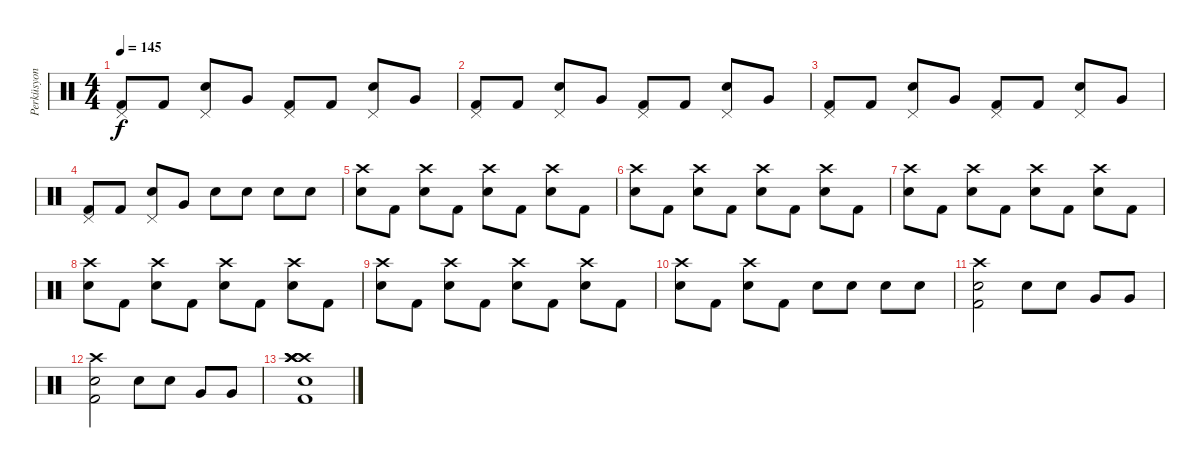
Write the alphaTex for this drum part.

\track ("Perküsyon" "Perküsyon") {instrument percussion}
\staff {score}
\articulation defaults
\ts (4 4)
\tempo 145
\clef neutral
\ks c
("Pedal Hi-Hat (hit)" "Kick (hit) 2").8{dy f} "Kick (hit) 2".8 ("Pedal Hi-Hat (hit)" "Snare (hit) 2").8 "Very Low Tom (hit)".8 ("Pedal Hi-Hat (hit)" "Kick (hit) 2").8 "Kick (hit) 2".8 ("Pedal Hi-Hat (hit)" "Snare (hit) 2").8 "Very Low Tom (hit)".8 |
("Pedal Hi-Hat (hit)" "Kick (hit) 2").8 "Kick (hit) 2".8 ("Pedal Hi-Hat (hit)" "Snare (hit) 2").8 "Very Low Tom (hit)".8 ("Pedal Hi-Hat (hit)" "Kick (hit) 2").8 "Kick (hit) 2".8 ("Pedal Hi-Hat (hit)" "Snare (hit) 2").8 "Very Low Tom (hit)".8 |
("Pedal Hi-Hat (hit)" "Kick (hit) 2").8 "Kick (hit) 2".8 ("Pedal Hi-Hat (hit)" "Snare (hit) 2").8 "Very Low Tom (hit)".8 ("Pedal Hi-Hat (hit)" "Kick (hit) 2").8 "Kick (hit) 2".8 ("Pedal Hi-Hat (hit)" "Snare (hit) 2").8 "Very Low Tom (hit)".8 |
("Pedal Hi-Hat (hit)" "Kick (hit) 2").8 "Kick (hit) 2".8 ("Pedal Hi-Hat (hit)" "Snare (hit) 2").8 "Very Low Tom (hit)".8 "Snare (hit) 2".8 "Snare (hit) 2".8 "Snare (hit) 2".8 "Snare (hit) 2".8 |
("Snare (hit) 2" "Crash high (hit)").8 "Kick (hit) 2".8 ("Snare (hit) 2" "Crash high (hit)").8 "Kick (hit) 2".8 ("Snare (hit) 2" "Crash high (hit)").8 "Kick (hit) 2".8 ("Snare (hit) 2" "Crash high (hit)").8 "Kick (hit) 2".8 |
("Snare (hit) 2" "Crash high (hit)").8 "Kick (hit) 2".8 ("Snare (hit) 2" "Crash high (hit)").8 "Kick (hit) 2".8 ("Snare (hit) 2" "Crash high (hit)").8 "Kick (hit) 2".8 ("Snare (hit) 2" "Crash high (hit)").8 "Kick (hit) 2".8 |
("Snare (hit) 2" "Crash high (hit)").8 "Kick (hit) 2".8 ("Snare (hit) 2" "Crash high (hit)").8 "Kick (hit) 2".8 ("Snare (hit) 2" "Crash high (hit)").8 "Kick (hit) 2".8 ("Snare (hit) 2" "Crash high (hit)").8 "Kick (hit) 2".8 |
("Snare (hit) 2" "Crash high (hit)").8 "Kick (hit) 2".8 ("Snare (hit) 2" "Crash high (hit)").8 "Kick (hit) 2".8 ("Snare (hit) 2" "Crash high (hit)").8 "Kick (hit) 2".8 ("Snare (hit) 2" "Crash high (hit)").8 "Kick (hit) 2".8 |
("Snare (hit) 2" "Crash high (hit)").8 "Kick (hit) 2".8 ("Snare (hit) 2" "Crash high (hit)").8 "Kick (hit) 2".8 ("Snare (hit) 2" "Crash high (hit)").8 "Kick (hit) 2".8 ("Snare (hit) 2" "Crash high (hit)").8 "Kick (hit) 2".8 |
("Snare (hit) 2" "Crash high (hit)").8 "Kick (hit) 2".8 ("Snare (hit) 2" "Crash high (hit)").8 "Kick (hit) 2".8 "Snare (hit) 2".8 "Snare (hit) 2".8 "Snare (hit) 2".8 "Snare (hit) 2".8 |
("Snare (hit) 2" "Crash high (hit)" "Kick (hit) 2").2 "Snare (hit) 2".8 "Snare (hit) 2".8 "Very Low Tom (hit)".8 "Very Low Tom (hit)".8 |
("Snare (hit) 2" "Crash high (hit)" "Kick (hit) 2").2 "Snare (hit) 2".8 "Snare (hit) 2".8 "Very Low Tom (hit)".8 "Very Low Tom (hit)".8 |
("Crash high (hit)" "Crash high (hit)" "Crash high (hit)" "Snare (hit) 2" "Crash high (hit)" "Kick (hit) 2").1
